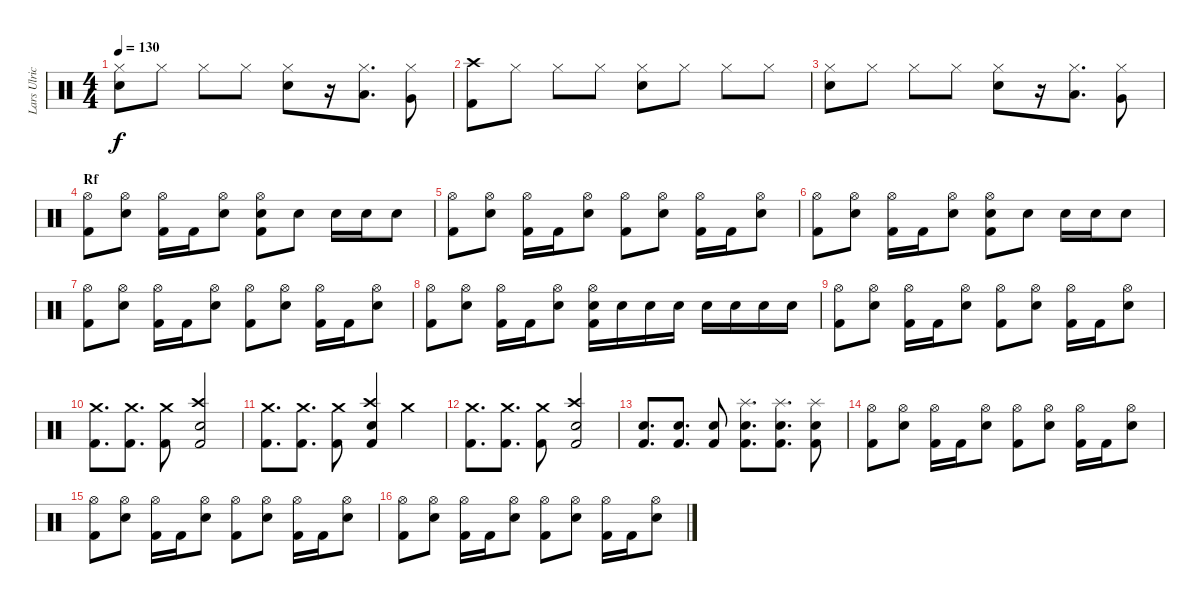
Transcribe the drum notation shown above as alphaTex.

\track ("Lars Ulrich" "Lars Ulric") {instrument percussion}
\staff {score}
\articulation defaults
\ts (4 4)
\tempo 130
\clef neutral
\ks c
("Hi-Hat (closed)" "Electric Snare (hit)").8{dy f} "Hi-Hat (closed)".8 "Hi-Hat (closed)".8 "Hi-Hat (closed)".8 ("Hi-Hat (closed)" "Electric Snare (hit)").8 r.16 ("Hi-Hat (closed)" "Low Tom (hit)").8{d} ("Hi-Hat (closed)" "Very Low Tom (hit)").8 |
("Crash high (hit)" "Kick (hit) 2").8 "Hi-Hat (closed)".8 "Hi-Hat (closed)".8 "Hi-Hat (closed)".8 ("Hi-Hat (closed)" "Electric Snare (hit)").8 "Hi-Hat (closed)".8 "Hi-Hat (closed)".8 "Hi-Hat (closed)".8 |
("Hi-Hat (closed)" "Electric Snare (hit)").8 "Hi-Hat (closed)".8 "Hi-Hat (closed)".8 "Hi-Hat (closed)".8 ("Hi-Hat (closed)" "Electric Snare (hit)").8 r.16 ("Hi-Hat (closed)" "Low Tom (hit)").8{d} ("Hi-Hat (closed)" "Very Low Tom (hit)").8 |
\section ("" "Rf")
("Hi-Hat (open)" "Kick (hit) 2").8 ("Hi-Hat (open)" "Electric Snare (hit)").8 ("Hi-Hat (open)" "Kick (hit) 2").16 "Kick (hit) 2".16 ("Hi-Hat (open)" "Electric Snare (hit)").8 ("Hi-Hat (open)" "Electric Snare (hit)" "Kick (hit) 2").8 "Electric Snare (hit)".8 "Electric Snare (hit)".16 "Electric Snare (hit)".16 "Electric Snare (hit)".8 |
("Hi-Hat (open)" "Kick (hit) 2").8 ("Hi-Hat (open)" "Electric Snare (hit)").8 ("Hi-Hat (open)" "Kick (hit) 2").16 "Kick (hit) 2".16 ("Hi-Hat (open)" "Electric Snare (hit)").8 ("Hi-Hat (open)" "Kick (hit) 2").8 ("Hi-Hat (open)" "Electric Snare (hit)").8 ("Hi-Hat (open)" "Kick (hit) 2").16 "Kick (hit) 2".16 ("Hi-Hat (open)" "Electric Snare (hit)").8 |
("Hi-Hat (open)" "Kick (hit) 2").8 ("Hi-Hat (open)" "Electric Snare (hit)").8 ("Hi-Hat (open)" "Kick (hit) 2").16 "Kick (hit) 2".16 ("Hi-Hat (open)" "Electric Snare (hit)").8 ("Hi-Hat (open)" "Electric Snare (hit)" "Kick (hit) 2").8 "Electric Snare (hit)".8 "Electric Snare (hit)".16 "Electric Snare (hit)".16 "Electric Snare (hit)".8 |
("Hi-Hat (open)" "Kick (hit) 2").8 ("Hi-Hat (open)" "Electric Snare (hit)").8 ("Hi-Hat (open)" "Kick (hit) 2").16 "Kick (hit) 2".16 ("Hi-Hat (open)" "Electric Snare (hit)").8 ("Hi-Hat (open)" "Kick (hit) 2").8 ("Hi-Hat (open)" "Electric Snare (hit)").8 ("Hi-Hat (open)" "Kick (hit) 2").16 "Kick (hit) 2".16 ("Hi-Hat (open)" "Electric Snare (hit)").8 |
("Hi-Hat (open)" "Kick (hit) 2").8 ("Hi-Hat (open)" "Electric Snare (hit)").8 ("Hi-Hat (open)" "Kick (hit) 2").16 "Kick (hit) 2".16 ("Hi-Hat (open)" "Electric Snare (hit)").8 ("Hi-Hat (open)" "Electric Snare (hit)" "Kick (hit) 2").16 "Electric Snare (hit)".16 "Electric Snare (hit)".16 "Electric Snare (hit)".16 "Electric Snare (hit)".16 "Electric Snare (hit)".16 "Electric Snare (hit)".16 "Electric Snare (hit)".16 |
("Hi-Hat (open)" "Kick (hit) 2").8 ("Hi-Hat (open)" "Electric Snare (hit)").8 ("Hi-Hat (open)" "Kick (hit) 2").16 "Kick (hit) 2".16 ("Hi-Hat (open)" "Electric Snare (hit)").8 ("Hi-Hat (open)" "Kick (hit) 2").8 ("Hi-Hat (open)" "Electric Snare (hit)").8 ("Hi-Hat (open)" "Kick (hit) 2").16 "Kick (hit) 2".16 ("Hi-Hat (open)" "Electric Snare (hit)").8 |
("Crash medium (hit)" "Kick (hit) 2").8{d} ("Crash medium (hit)" "Kick (hit) 2").8{d} ("Crash medium (hit)" "Kick (hit) 2").8 ("Crash high (hit)" "Electric Snare (hit)" "Kick (hit) 2").2 |
("Crash medium (hit)" "Kick (hit) 2").8{d} ("Crash medium (hit)" "Kick (hit) 2").8{d} ("Crash medium (hit)" "Kick (hit) 2").8 ("Crash high (hit)" "Electric Snare (hit)" "Kick (hit) 2").4 "Crash medium (hit)".4 |
("Crash medium (hit)" "Kick (hit) 2").8{d} ("Crash medium (hit)" "Kick (hit) 2").8{d} ("Crash medium (hit)" "Kick (hit) 2").8 ("Crash high (hit)" "Electric Snare (hit)" "Kick (hit) 2").2 |
("Electric Snare (hit)" "Kick (hit) 2").8{d} ("Electric Snare (hit)" "Kick (hit) 2").8{d} ("Electric Snare (hit)" "Kick (hit) 2").8 ("Splash (hit)" "Electric Snare (hit)" "Kick (hit) 2").8{d} ("Splash (hit)" "Electric Snare (hit)" "Kick (hit) 2").8{d} ("Splash (hit)" "Electric Snare (hit)" "Kick (hit) 2").8 |
("Hi-Hat (open)" "Kick (hit) 2").8 ("Hi-Hat (open)" "Electric Snare (hit)").8 ("Hi-Hat (open)" "Kick (hit) 2").16 "Kick (hit) 2".16 ("Hi-Hat (open)" "Electric Snare (hit)").8 ("Hi-Hat (open)" "Kick (hit) 2").8 ("Hi-Hat (open)" "Electric Snare (hit)").8 ("Hi-Hat (open)" "Kick (hit) 2").16 "Kick (hit) 2".16 ("Hi-Hat (open)" "Electric Snare (hit)").8 |
("Hi-Hat (open)" "Kick (hit) 2").8 ("Hi-Hat (open)" "Electric Snare (hit)").8 ("Hi-Hat (open)" "Kick (hit) 2").16 "Kick (hit) 2".16 ("Hi-Hat (open)" "Electric Snare (hit)").8 ("Hi-Hat (open)" "Kick (hit) 2").8 ("Hi-Hat (open)" "Electric Snare (hit)").8 ("Hi-Hat (open)" "Kick (hit) 2").16 "Kick (hit) 2".16 ("Hi-Hat (open)" "Electric Snare (hit)").8 |
("Hi-Hat (open)" "Kick (hit) 2").8 ("Hi-Hat (open)" "Electric Snare (hit)").8 ("Hi-Hat (open)" "Kick (hit) 2").16 "Kick (hit) 2".16 ("Hi-Hat (open)" "Electric Snare (hit)").8 ("Hi-Hat (open)" "Kick (hit) 2").8 ("Hi-Hat (open)" "Electric Snare (hit)").8 ("Hi-Hat (open)" "Kick (hit) 2").16 "Kick (hit) 2".16 ("Hi-Hat (open)" "Electric Snare (hit)").8
